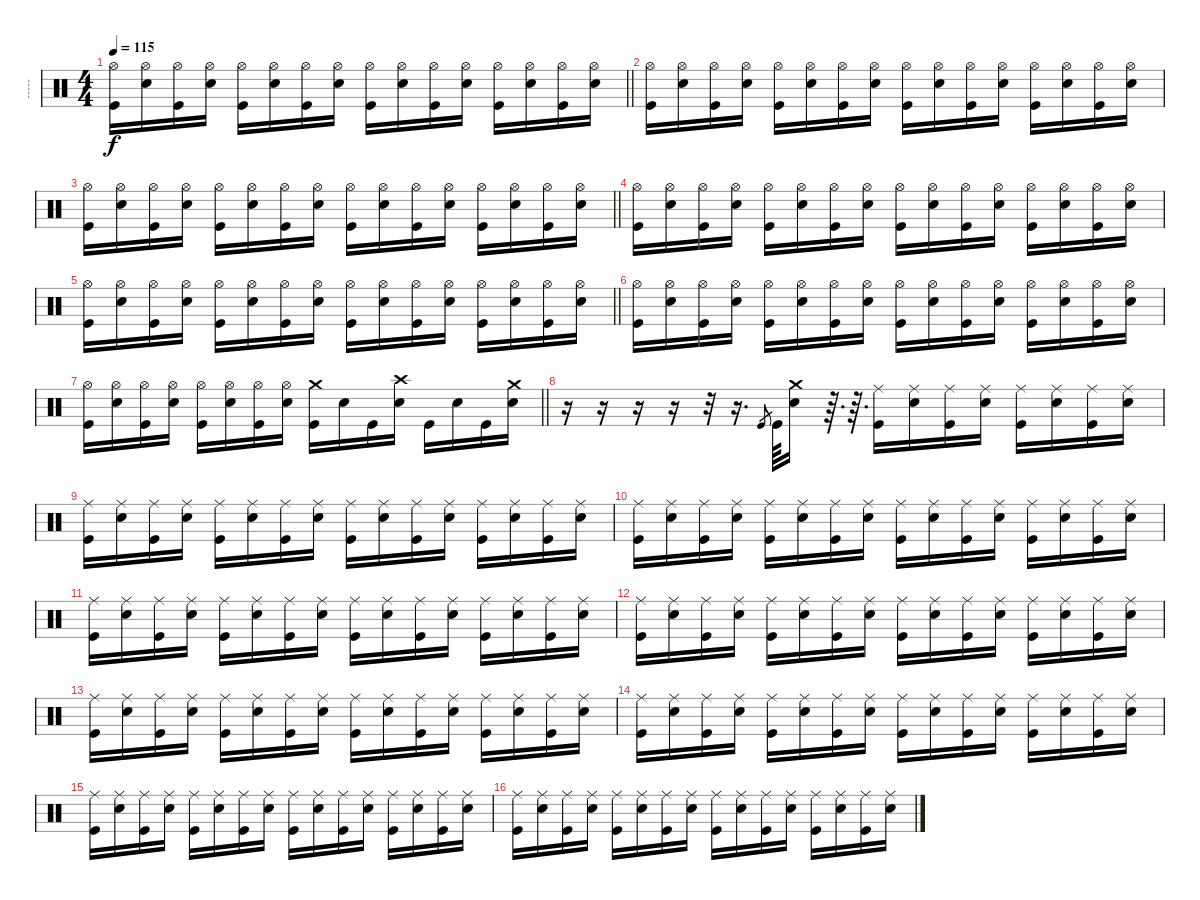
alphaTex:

\track ("-----" "-----") {instrument percussion}
\staff {score}
\articulation defaults
\ts (4 4)
\tempo 115
\clef neutral
\barLineRight lightlight
\ks c
("Hi-Hat (open)" "Kick (hit)").16{dy f} ("Hi-Hat (open)" "Electric Snare (hit)").16 ("Hi-Hat (open)" "Kick (hit)").16 ("Hi-Hat (open)" "Electric Snare (hit)").16 ("Hi-Hat (open)" "Kick (hit)").16 ("Hi-Hat (open)" "Electric Snare (hit)").16 ("Hi-Hat (open)" "Kick (hit)").16 ("Hi-Hat (open)" "Electric Snare (hit)").16 ("Hi-Hat (open)" "Kick (hit)").16 ("Hi-Hat (open)" "Electric Snare (hit)").16 ("Hi-Hat (open)" "Kick (hit)").16 ("Hi-Hat (open)" "Electric Snare (hit)").16 ("Hi-Hat (open)" "Kick (hit)").16 ("Hi-Hat (open)" "Electric Snare (hit)").16 ("Hi-Hat (open)" "Kick (hit)").16 ("Hi-Hat (open)" "Electric Snare (hit)").16 |
("Hi-Hat (open)" "Kick (hit)").16 ("Hi-Hat (open)" "Electric Snare (hit)").16 ("Hi-Hat (open)" "Kick (hit)").16 ("Hi-Hat (open)" "Electric Snare (hit)").16 ("Hi-Hat (open)" "Kick (hit)").16 ("Hi-Hat (open)" "Electric Snare (hit)").16 ("Hi-Hat (open)" "Kick (hit)").16 ("Hi-Hat (open)" "Electric Snare (hit)").16 ("Hi-Hat (open)" "Kick (hit)").16 ("Hi-Hat (open)" "Electric Snare (hit)").16 ("Hi-Hat (open)" "Kick (hit)").16 ("Hi-Hat (open)" "Electric Snare (hit)").16 ("Hi-Hat (open)" "Kick (hit)").16 ("Hi-Hat (open)" "Electric Snare (hit)").16 ("Hi-Hat (open)" "Kick (hit)").16 ("Hi-Hat (open)" "Electric Snare (hit)").16 |
\barLineRight lightlight
("Hi-Hat (open)" "Kick (hit)").16 ("Hi-Hat (open)" "Electric Snare (hit)").16 ("Hi-Hat (open)" "Kick (hit)").16 ("Hi-Hat (open)" "Electric Snare (hit)").16 ("Hi-Hat (open)" "Kick (hit)").16 ("Hi-Hat (open)" "Electric Snare (hit)").16 ("Hi-Hat (open)" "Kick (hit)").16 ("Hi-Hat (open)" "Electric Snare (hit)").16 ("Hi-Hat (open)" "Kick (hit)").16 ("Hi-Hat (open)" "Electric Snare (hit)").16 ("Hi-Hat (open)" "Kick (hit)").16 ("Hi-Hat (open)" "Electric Snare (hit)").16 ("Hi-Hat (open)" "Kick (hit)").16 ("Hi-Hat (open)" "Electric Snare (hit)").16 ("Hi-Hat (open)" "Kick (hit)").16 ("Hi-Hat (open)" "Electric Snare (hit)").16 |
("Hi-Hat (open)" "Kick (hit)").16 ("Hi-Hat (open)" "Electric Snare (hit)").16 ("Hi-Hat (open)" "Kick (hit)").16 ("Hi-Hat (open)" "Electric Snare (hit)").16 ("Hi-Hat (open)" "Kick (hit)").16 ("Hi-Hat (open)" "Electric Snare (hit)").16 ("Hi-Hat (open)" "Kick (hit)").16 ("Hi-Hat (open)" "Electric Snare (hit)").16 ("Hi-Hat (open)" "Kick (hit)").16 ("Hi-Hat (open)" "Electric Snare (hit)").16 ("Hi-Hat (open)" "Kick (hit)").16 ("Hi-Hat (open)" "Electric Snare (hit)").16 ("Hi-Hat (open)" "Kick (hit)").16 ("Hi-Hat (open)" "Electric Snare (hit)").16 ("Hi-Hat (open)" "Kick (hit)").16 ("Hi-Hat (open)" "Electric Snare (hit)").16 |
\barLineRight lightlight
("Hi-Hat (open)" "Kick (hit)").16 ("Hi-Hat (open)" "Electric Snare (hit)").16 ("Hi-Hat (open)" "Kick (hit)").16 ("Hi-Hat (open)" "Electric Snare (hit)").16 ("Hi-Hat (open)" "Kick (hit)").16 ("Hi-Hat (open)" "Electric Snare (hit)").16 ("Hi-Hat (open)" "Kick (hit)").16 ("Hi-Hat (open)" "Electric Snare (hit)").16 ("Hi-Hat (open)" "Kick (hit)").16 ("Hi-Hat (open)" "Electric Snare (hit)").16 ("Hi-Hat (open)" "Kick (hit)").16 ("Hi-Hat (open)" "Electric Snare (hit)").16 ("Hi-Hat (open)" "Kick (hit)").16 ("Hi-Hat (open)" "Electric Snare (hit)").16 ("Hi-Hat (open)" "Kick (hit)").16 ("Hi-Hat (open)" "Electric Snare (hit)").16 |
("Hi-Hat (open)" "Kick (hit)").16 ("Hi-Hat (open)" "Electric Snare (hit)").16 ("Hi-Hat (open)" "Kick (hit)").16 ("Hi-Hat (open)" "Electric Snare (hit)").16 ("Hi-Hat (open)" "Kick (hit)").16 ("Hi-Hat (open)" "Electric Snare (hit)").16 ("Hi-Hat (open)" "Kick (hit)").16 ("Hi-Hat (open)" "Electric Snare (hit)").16 ("Hi-Hat (open)" "Kick (hit)").16 ("Hi-Hat (open)" "Electric Snare (hit)").16 ("Hi-Hat (open)" "Kick (hit)").16 ("Hi-Hat (open)" "Electric Snare (hit)").16 ("Hi-Hat (open)" "Kick (hit)").16 ("Hi-Hat (open)" "Electric Snare (hit)").16 ("Hi-Hat (open)" "Kick (hit)").16 ("Hi-Hat (open)" "Electric Snare (hit)").16 |
\barLineRight lightlight
("Hi-Hat (open)" "Kick (hit)").16 ("Hi-Hat (open)" "Electric Snare (hit)").16 ("Hi-Hat (open)" "Kick (hit)").16 ("Hi-Hat (open)" "Electric Snare (hit)").16 ("Hi-Hat (open)" "Kick (hit)").16 ("Hi-Hat (open)" "Electric Snare (hit)").16 ("Hi-Hat (open)" "Kick (hit)").16 ("Hi-Hat (open)" "Electric Snare (hit)").16 ("Crash medium (hit)" "Kick (hit)").16 "Electric Snare (hit)".16 "Kick (hit)".16 ("Crash high (hit)" "Electric Snare (hit)").16 "Kick (hit)".16 "Electric Snare (hit)".16 "Kick (hit)".16 ("Crash medium (hit)" "Electric Snare (hit)").16 |
\section ("" "")
r.16 r.16 r.16 r.16 r.32 r.16{d} "Kick (hit)".8{gr} "Kick (hit)".64 ("Crash medium (hit)" "Electric Snare (hit)").16 r.64{d} r.64{d} ("Ride (middle)" "Kick (hit)").16 ("Ride (middle)" "Electric Snare (hit)").16 ("Ride (middle)" "Kick (hit)").16 ("Ride (middle)" "Electric Snare (hit)").16 ("Ride (middle)" "Kick (hit)").16 ("Ride (middle)" "Electric Snare (hit)").16 ("Ride (middle)" "Kick (hit)").16 ("Ride (middle)" "Electric Snare (hit)").16 |
("Ride (middle)" "Kick (hit)").16 ("Ride (middle)" "Electric Snare (hit)").16 ("Ride (middle)" "Kick (hit)").16 ("Ride (middle)" "Electric Snare (hit)").16 ("Ride (middle)" "Kick (hit)").16 ("Ride (middle)" "Electric Snare (hit)").16 ("Ride (middle)" "Kick (hit)").16 ("Ride (middle)" "Electric Snare (hit)").16 ("Ride (middle)" "Kick (hit)").16 ("Ride (middle)" "Electric Snare (hit)").16 ("Ride (middle)" "Kick (hit)").16 ("Ride (middle)" "Electric Snare (hit)").16 ("Ride (middle)" "Kick (hit)").16 ("Ride (middle)" "Electric Snare (hit)").16 ("Ride (middle)" "Kick (hit)").16 ("Ride (middle)" "Electric Snare (hit)").16 |
("Ride (middle)" "Kick (hit)").16 ("Ride (middle)" "Electric Snare (hit)").16 ("Ride (middle)" "Kick (hit)").16 ("Ride (middle)" "Electric Snare (hit)").16 ("Ride (middle)" "Kick (hit)").16 ("Ride (middle)" "Electric Snare (hit)").16 ("Ride (middle)" "Kick (hit)").16 ("Ride (middle)" "Electric Snare (hit)").16 ("Ride (middle)" "Kick (hit)").16 ("Ride (middle)" "Electric Snare (hit)").16 ("Ride (middle)" "Kick (hit)").16 ("Ride (middle)" "Electric Snare (hit)").16 ("Ride (middle)" "Kick (hit)").16 ("Ride (middle)" "Electric Snare (hit)").16 ("Ride (middle)" "Kick (hit)").16 ("Ride (middle)" "Electric Snare (hit)").16 |
("Ride (middle)" "Kick (hit)").16 ("Ride (middle)" "Electric Snare (hit)").16 ("Ride (middle)" "Kick (hit)").16 ("Ride (middle)" "Electric Snare (hit)").16 ("Ride (middle)" "Kick (hit)").16 ("Ride (middle)" "Electric Snare (hit)").16 ("Ride (middle)" "Kick (hit)").16 ("Ride (middle)" "Electric Snare (hit)").16 ("Ride (middle)" "Kick (hit)").16 ("Ride (middle)" "Electric Snare (hit)").16 ("Ride (middle)" "Kick (hit)").16 ("Ride (middle)" "Electric Snare (hit)").16 ("Ride (middle)" "Kick (hit)").16 ("Ride (middle)" "Electric Snare (hit)").16 ("Ride (middle)" "Kick (hit)").16 ("Ride (middle)" "Electric Snare (hit)").16 |
("Ride (middle)" "Kick (hit)").16 ("Ride (middle)" "Electric Snare (hit)").16 ("Ride (middle)" "Kick (hit)").16 ("Ride (middle)" "Electric Snare (hit)").16 ("Ride (middle)" "Kick (hit)").16 ("Ride (middle)" "Electric Snare (hit)").16 ("Ride (middle)" "Kick (hit)").16 ("Ride (middle)" "Electric Snare (hit)").16 ("Ride (middle)" "Kick (hit)").16 ("Ride (middle)" "Electric Snare (hit)").16 ("Ride (middle)" "Kick (hit)").16 ("Ride (middle)" "Electric Snare (hit)").16 ("Ride (middle)" "Kick (hit)").16 ("Ride (middle)" "Electric Snare (hit)").16 ("Ride (middle)" "Kick (hit)").16 ("Ride (middle)" "Electric Snare (hit)").16 |
("Ride (middle)" "Kick (hit)").16 ("Ride (middle)" "Electric Snare (hit)").16 ("Ride (middle)" "Kick (hit)").16 ("Ride (middle)" "Electric Snare (hit)").16 ("Ride (middle)" "Kick (hit)").16 ("Ride (middle)" "Electric Snare (hit)").16 ("Ride (middle)" "Kick (hit)").16 ("Ride (middle)" "Electric Snare (hit)").16 ("Ride (middle)" "Kick (hit)").16 ("Ride (middle)" "Electric Snare (hit)").16 ("Ride (middle)" "Kick (hit)").16 ("Ride (middle)" "Electric Snare (hit)").16 ("Ride (middle)" "Kick (hit)").16 ("Ride (middle)" "Electric Snare (hit)").16 ("Ride (middle)" "Kick (hit)").16 ("Ride (middle)" "Electric Snare (hit)").16 |
("Ride (middle)" "Kick (hit)").16 ("Ride (middle)" "Electric Snare (hit)").16 ("Ride (middle)" "Kick (hit)").16 ("Ride (middle)" "Electric Snare (hit)").16 ("Ride (middle)" "Kick (hit)").16 ("Ride (middle)" "Electric Snare (hit)").16 ("Ride (middle)" "Kick (hit)").16 ("Ride (middle)" "Electric Snare (hit)").16 ("Ride (middle)" "Kick (hit)").16 ("Ride (middle)" "Electric Snare (hit)").16 ("Ride (middle)" "Kick (hit)").16 ("Ride (middle)" "Electric Snare (hit)").16 ("Ride (middle)" "Kick (hit)").16 ("Ride (middle)" "Electric Snare (hit)").16 ("Ride (middle)" "Kick (hit)").16 ("Ride (middle)" "Electric Snare (hit)").16 |
("Ride (middle)" "Kick (hit)").16 ("Ride (middle)" "Electric Snare (hit)").16 ("Ride (middle)" "Kick (hit)").16 ("Ride (middle)" "Electric Snare (hit)").16 ("Ride (middle)" "Kick (hit)").16 ("Ride (middle)" "Electric Snare (hit)").16 ("Ride (middle)" "Kick (hit)").16 ("Ride (middle)" "Electric Snare (hit)").16 ("Ride (middle)" "Kick (hit)").16 ("Ride (middle)" "Electric Snare (hit)").16 ("Ride (middle)" "Kick (hit)").16 ("Ride (middle)" "Electric Snare (hit)").16 ("Ride (middle)" "Kick (hit)").16 ("Ride (middle)" "Electric Snare (hit)").16 ("Ride (middle)" "Kick (hit)").16 ("Ride (middle)" "Electric Snare (hit)").16 |
("Ride (middle)" "Kick (hit)").16 ("Ride (middle)" "Electric Snare (hit)").16 ("Ride (middle)" "Kick (hit)").16 ("Ride (middle)" "Electric Snare (hit)").16 ("Ride (middle)" "Kick (hit)").16 ("Ride (middle)" "Electric Snare (hit)").16 ("Ride (middle)" "Kick (hit)").16 ("Ride (middle)" "Electric Snare (hit)").16 ("Ride (middle)" "Kick (hit)").16 ("Ride (middle)" "Electric Snare (hit)").16 ("Ride (middle)" "Kick (hit)").16 ("Ride (middle)" "Electric Snare (hit)").16 ("Ride (middle)" "Kick (hit)").16 ("Ride (middle)" "Electric Snare (hit)").16 ("Ride (middle)" "Kick (hit)").16 ("Ride (middle)" "Electric Snare (hit)").16
